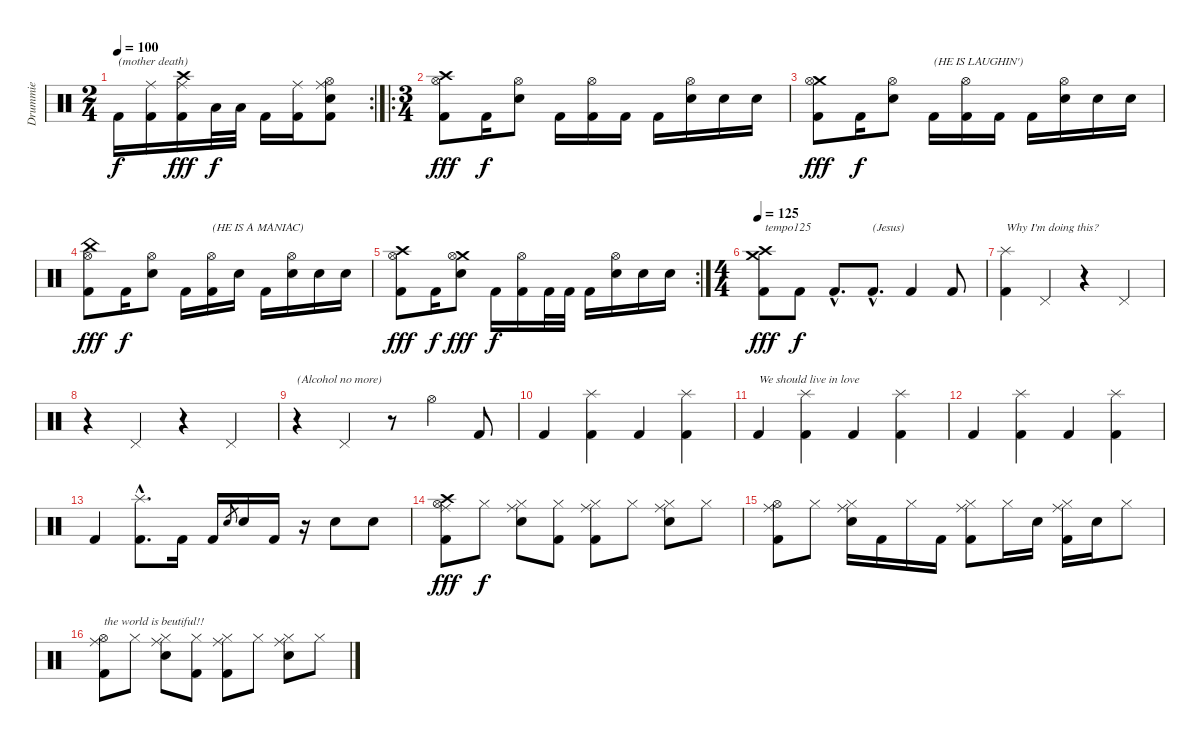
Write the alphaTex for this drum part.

\track ("Drummie" "Drummie") {instrument percussion}
\staff {score}
\articulation defaults
\rc 2
\ts (2 4)
\tempo 100
\clef neutral
\ks c "Kick (hit) 2".16{txt "(mother death)" dy f}
("Ride (middle)" "Kick (hit) 2").16 ("Ride (middle)" "Crash high (hit)" "Kick (hit) 2").16{dy fff} "Low Tom (hit)".32{dy f} "Low Tom (hit)".32 "Kick (hit) 2".16 ("Ride (middle)" "Kick (hit) 2").16 ("Ride (middle)" "Hi-Hat (open)" "Electric Snare (hit)" "Kick (hit) 2").8 |
\ro
\ts (3 4)
("Crash high (hit)" "Hi-Hat (open)" "Kick (hit) 2").8{dy fff} "Kick (hit) 2".16{dy f} ("Hi-Hat (open)" "Electric Snare (hit)").8 "Kick (hit) 2".16 ("Hi-Hat (open)" "Kick (hit) 2").16 "Kick (hit) 2".16 "Kick (hit) 2".16 ("Hi-Hat (open)" "Electric Snare (hit)").16 "Electric Snare (hit)".16 "Electric Snare (hit)".16 |
("Crash medium (hit)" "Hi-Hat (open)" "Kick (hit) 2").8{dy fff} "Kick (hit) 2".16{dy f} ("Hi-Hat (open)" "Electric Snare (hit)").8 "Kick (hit) 2".16{txt "(HE IS LAUGHIN')"} ("Hi-Hat (open)" "Kick (hit) 2").16 "Kick (hit) 2".16 "Kick (hit) 2".16 ("Hi-Hat (open)" "Electric Snare (hit)").16 "Electric Snare (hit)".16 "Electric Snare (hit)".16 |
("China (hit)" "Hi-Hat (open)" "Kick (hit) 2").8{dy fff} "Kick (hit) 2".16{dy f} ("Hi-Hat (open)" "Electric Snare (hit)").8 "Kick (hit) 2".16 ("Hi-Hat (open)" "Kick (hit) 2").16{txt "(HE IS A MANIAC)"} "Electric Snare (hit)".16 "Kick (hit) 2".16 ("Hi-Hat (open)" "Electric Snare (hit)").16 "Electric Snare (hit)".16 "Electric Snare (hit)".16 |
\rc 2
("Crash high (hit)" "Hi-Hat (open)" "Kick (hit) 2").8{dy fff} "Kick (hit) 2".16{dy f} ("Crash medium (hit)" "Hi-Hat (open)" "Electric Snare (hit)").8{dy fff} "Kick (hit) 2".16{dy f} ("Hi-Hat (open)" "Kick (hit) 2").16 "Kick (hit) 2".32 "Kick (hit) 2".32 "Kick (hit) 2".16 ("Hi-Hat (open)" "Electric Snare (hit)").16 "Electric Snare (hit)".16 "Electric Snare (hit)".16 |
\ts (4 4)
\tempo 125
("Crash high (hit)" "Crash medium (hit)" "Kick (hit) 2").8{txt "tempo125" dy fff} "Kick (hit) 2".8{dy f} "Kick (hit) 2"{hac}.8{d} "Kick (hit) 2"{hac}.8{d txt "(Jesus)"} "Kick (hit) 2".4 "Kick (hit) 2".8 |
("Splash (hit)" "Kick (hit) 2").4{txt "Why I'm doing this?"} "Pedal Hi-Hat (hit)".4 r.4 "Pedal Hi-Hat (hit)".4 |
r.4 "Pedal Hi-Hat (hit)".4 r.4 "Pedal Hi-Hat (hit)".4 |
r.4{txt "(Alcohol no more)"} "Pedal Hi-Hat (hit)".4 r.8 "Hi-Hat (open)".4 "Kick (hit) 2".8 |
"Kick (hit) 2".4 ("Splash (hit)" "Kick (hit) 2").4 "Kick (hit) 2".4 ("Splash (hit)" "Kick (hit) 2").4 |
"Kick (hit) 2".4{txt "We should live in love"} ("Splash (hit)" "Kick (hit) 2").4 "Kick (hit) 2".4 ("Splash (hit)" "Kick (hit) 2").4 |
"Kick (hit) 2".4 ("Splash (hit)" "Kick (hit) 2").4 "Kick (hit) 2".4 ("Splash (hit)" "Kick (hit) 2").4 |
"Kick (hit) 2".4 ("Splash (hit)"{hac} "Kick (hit) 2"{hac}).8{d} "Kick (hit) 2".16 "Kick (hit) 2".16 "Electric Snare (hit)".8{gr} "Electric Snare (hit)".16 "Kick (hit) 2".16 r.16 "Electric Snare (hit)".8 "Electric Snare (hit)".8 |
("Ride (middle)" "Crash high (hit)" "Hi-Hat (open)" "Kick (hit) 2").8{dy fff} "Hi-Hat (closed)".8{dy f} ("Ride (middle)" "Hi-Hat (closed)" "Electric Snare (hit)").8 ("Hi-Hat (closed)" "Kick (hit) 2").8 ("Ride (middle)" "Hi-Hat (closed)" "Kick (hit) 2").8 "Hi-Hat (closed)".8 ("Ride (middle)" "Hi-Hat (closed)" "Electric Snare (hit)").8 "Hi-Hat (closed)".8 |
("Ride (middle)" "Hi-Hat (open)" "Kick (hit) 2").8 "Hi-Hat (closed)".8 ("Ride (middle)" "Hi-Hat (closed)" "Electric Snare (hit)").16 "Kick (hit) 2".16 "Hi-Hat (closed)".16 "Kick (hit) 2".16 ("Ride (middle)" "Hi-Hat (closed)" "Kick (hit) 2").8 "Hi-Hat (closed)".16 "Electric Snare (hit)".16 ("Ride (middle)" "Hi-Hat (closed)" "Kick (hit) 2").16 "Electric Snare (hit)".16 "Hi-Hat (closed)".8 |
("Ride (middle)" "Hi-Hat (open)" "Kick (hit) 2").8{txt "the world is beutiful!!"} "Hi-Hat (closed)".8 ("Ride (middle)" "Hi-Hat (closed)" "Electric Snare (hit)").8 ("Hi-Hat (closed)" "Kick (hit) 2").8 ("Ride (middle)" "Hi-Hat (closed)" "Kick (hit) 2").8 "Hi-Hat (closed)".8 ("Ride (middle)" "Hi-Hat (closed)" "Electric Snare (hit)").8 "Hi-Hat (closed)".8
